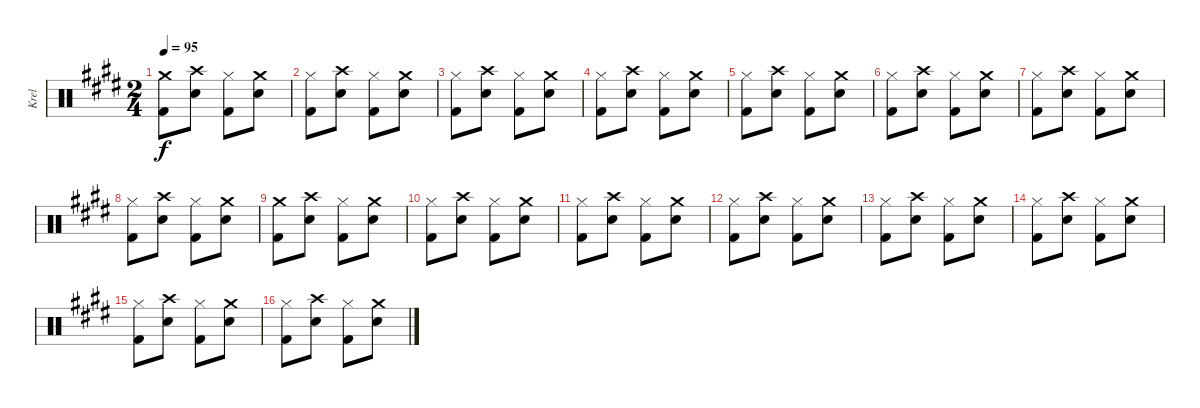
\track ("Krel" "Krel") {instrument percussion}
\staff {score}
\articulation defaults
\ts (2 4)
\tempo 95
\clef neutral
\ks e
("Crash medium (hit)" "Kick (hit) 2").8{dy f} ("Crash high (hit)" "Snare (hit) 2").8 ("Hi-Hat (closed)" "Kick (hit) 2").8 ("Crash medium (hit)" "Snare (hit) 2").8 |
("Hi-Hat (closed)" "Kick (hit) 2").8 ("Crash high (hit)" "Snare (hit) 2").8 ("Hi-Hat (closed)" "Kick (hit) 2").8 ("Crash medium (hit)" "Snare (hit) 2").8 |
("Hi-Hat (closed)" "Kick (hit) 2").8 ("Crash high (hit)" "Snare (hit) 2").8 ("Hi-Hat (closed)" "Kick (hit) 2").8 ("Crash medium (hit)" "Snare (hit) 2").8 |
("Hi-Hat (closed)" "Kick (hit) 2").8 ("Crash high (hit)" "Snare (hit) 2").8 ("Hi-Hat (closed)" "Kick (hit) 2").8 ("Crash medium (hit)" "Snare (hit) 2").8 |
("Hi-Hat (closed)" "Kick (hit) 2").8 ("Crash high (hit)" "Snare (hit) 2").8 ("Hi-Hat (closed)" "Kick (hit) 2").8 ("Crash medium (hit)" "Snare (hit) 2").8 |
("Hi-Hat (closed)" "Kick (hit) 2").8 ("Crash high (hit)" "Snare (hit) 2").8 ("Hi-Hat (closed)" "Kick (hit) 2").8 ("Crash medium (hit)" "Snare (hit) 2").8 |
("Hi-Hat (closed)" "Kick (hit) 2").8 ("Crash high (hit)" "Snare (hit) 2").8 ("Hi-Hat (closed)" "Kick (hit) 2").8 ("Crash medium (hit)" "Snare (hit) 2").8 |
("Hi-Hat (closed)" "Kick (hit) 2").8 ("Crash high (hit)" "Snare (hit) 2").8 ("Hi-Hat (closed)" "Kick (hit) 2").8 ("Crash medium (hit)" "Snare (hit) 2").8 |
("Crash medium (hit)" "Kick (hit) 2").8 ("Crash high (hit)" "Snare (hit) 2").8 ("Hi-Hat (closed)" "Kick (hit) 2").8 ("Crash medium (hit)" "Snare (hit) 2").8 |
("Hi-Hat (closed)" "Kick (hit) 2").8 ("Crash high (hit)" "Snare (hit) 2").8 ("Hi-Hat (closed)" "Kick (hit) 2").8 ("Crash medium (hit)" "Snare (hit) 2").8 |
("Hi-Hat (closed)" "Kick (hit) 2").8 ("Crash high (hit)" "Snare (hit) 2").8 ("Hi-Hat (closed)" "Kick (hit) 2").8 ("Crash medium (hit)" "Snare (hit) 2").8 |
("Hi-Hat (closed)" "Kick (hit) 2").8 ("Crash high (hit)" "Snare (hit) 2").8 ("Hi-Hat (closed)" "Kick (hit) 2").8 ("Crash medium (hit)" "Snare (hit) 2").8 |
("Hi-Hat (closed)" "Kick (hit) 2").8 ("Crash high (hit)" "Snare (hit) 2").8 ("Hi-Hat (closed)" "Kick (hit) 2").8 ("Crash medium (hit)" "Snare (hit) 2").8 |
("Hi-Hat (closed)" "Kick (hit) 2").8 ("Crash high (hit)" "Snare (hit) 2").8 ("Hi-Hat (closed)" "Kick (hit) 2").8 ("Crash medium (hit)" "Snare (hit) 2").8 |
("Hi-Hat (closed)" "Kick (hit) 2").8 ("Crash high (hit)" "Snare (hit) 2").8 ("Hi-Hat (closed)" "Kick (hit) 2").8 ("Crash medium (hit)" "Snare (hit) 2").8 |
("Hi-Hat (closed)" "Kick (hit) 2").8 ("Crash high (hit)" "Snare (hit) 2").8 ("Hi-Hat (closed)" "Kick (hit) 2").8 ("Crash medium (hit)" "Snare (hit) 2").8
